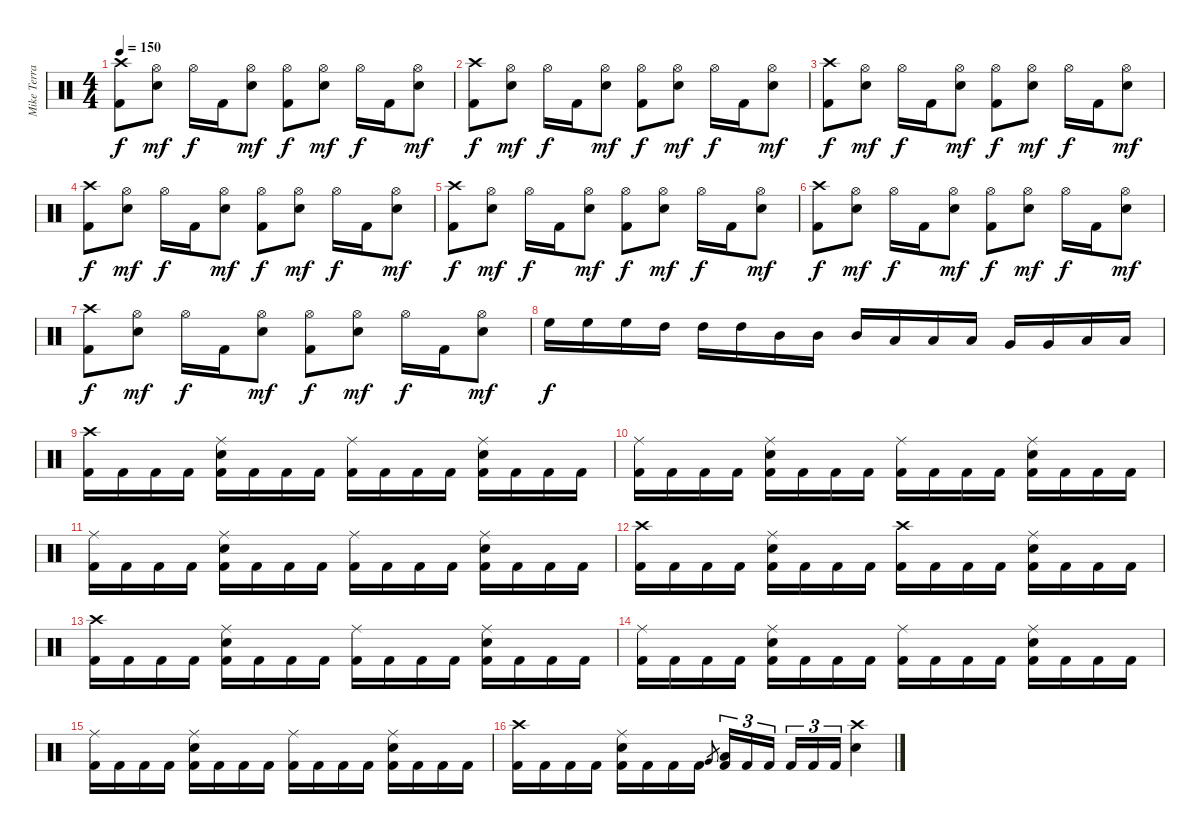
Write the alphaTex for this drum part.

\track ("Mike Terrana" "Mike Terra") {instrument percussion}
\staff {score}
\articulation defaults
\ts (4 4)
\tempo 150
\clef neutral
\ks c
("Crash high (hit)" "Kick (hit) 2").8{dy f} ("Hi-Hat (open)" "Electric Snare (hit)").8{dy mf} "Hi-Hat (open)".16{dy f} "Kick (hit) 2".16 ("Hi-Hat (open)" "Electric Snare (hit)").8{dy mf} ("Hi-Hat (open)" "Kick (hit) 2").8{dy f} ("Hi-Hat (open)" "Electric Snare (hit)").8{dy mf} "Hi-Hat (open)".16{dy f} "Kick (hit) 2".16 ("Hi-Hat (open)" "Electric Snare (hit)").8{dy mf} |
("Crash high (hit)" "Kick (hit) 2").8{dy f} ("Hi-Hat (open)" "Electric Snare (hit)").8{dy mf} "Hi-Hat (open)".16{dy f} "Kick (hit) 2".16 ("Hi-Hat (open)" "Electric Snare (hit)").8{dy mf} ("Hi-Hat (open)" "Kick (hit) 2").8{dy f} ("Hi-Hat (open)" "Electric Snare (hit)").8{dy mf} "Hi-Hat (open)".16{dy f} "Kick (hit) 2".16 ("Hi-Hat (open)" "Electric Snare (hit)").8{dy mf} |
("Crash high (hit)" "Kick (hit) 2").8{dy f} ("Hi-Hat (open)" "Electric Snare (hit)").8{dy mf} "Hi-Hat (open)".16{dy f} "Kick (hit) 2".16 ("Hi-Hat (open)" "Electric Snare (hit)").8{dy mf} ("Hi-Hat (open)" "Kick (hit) 2").8{dy f} ("Hi-Hat (open)" "Electric Snare (hit)").8{dy mf} "Hi-Hat (open)".16{dy f} "Kick (hit) 2".16 ("Hi-Hat (open)" "Electric Snare (hit)").8{dy mf} |
("Crash high (hit)" "Kick (hit) 2").8{dy f} ("Hi-Hat (open)" "Electric Snare (hit)").8{dy mf} "Hi-Hat (open)".16{dy f} "Kick (hit) 2".16 ("Hi-Hat (open)" "Electric Snare (hit)").8{dy mf} ("Hi-Hat (open)" "Kick (hit) 2").8{dy f} ("Hi-Hat (open)" "Electric Snare (hit)").8{dy mf} "Hi-Hat (open)".16{dy f} "Kick (hit) 2".16 ("Hi-Hat (open)" "Electric Snare (hit)").8{dy mf} |
("Crash high (hit)" "Kick (hit) 2").8{dy f} ("Hi-Hat (open)" "Electric Snare (hit)").8{dy mf} "Hi-Hat (open)".16{dy f} "Kick (hit) 2".16 ("Hi-Hat (open)" "Electric Snare (hit)").8{dy mf} ("Hi-Hat (open)" "Kick (hit) 2").8{dy f} ("Hi-Hat (open)" "Electric Snare (hit)").8{dy mf} "Hi-Hat (open)".16{dy f} "Kick (hit) 2".16 ("Hi-Hat (open)" "Electric Snare (hit)").8{dy mf} |
("Crash high (hit)" "Kick (hit) 2").8{dy f} ("Hi-Hat (open)" "Electric Snare (hit)").8{dy mf} "Hi-Hat (open)".16{dy f} "Kick (hit) 2".16 ("Hi-Hat (open)" "Electric Snare (hit)").8{dy mf} ("Hi-Hat (open)" "Kick (hit) 2").8{dy f} ("Hi-Hat (open)" "Electric Snare (hit)").8{dy mf} "Hi-Hat (open)".16{dy f} "Kick (hit) 2".16 ("Hi-Hat (open)" "Electric Snare (hit)").8{dy mf} |
("Crash high (hit)" "Kick (hit) 2").8{dy f} ("Hi-Hat (open)" "Electric Snare (hit)").8{dy mf} "Hi-Hat (open)".16{dy f} "Kick (hit) 2".16 ("Hi-Hat (open)" "Electric Snare (hit)").8{dy mf} ("Hi-Hat (open)" "Kick (hit) 2").8{dy f} ("Hi-Hat (open)" "Electric Snare (hit)").8{dy mf} "Hi-Hat (open)".16{dy f} "Kick (hit) 2".16 ("Hi-Hat (open)" "Electric Snare (hit)").8{dy mf} |
"High Floor Tom (hit)".16{dy f} "High Floor Tom (hit)".16 "High Floor Tom (hit)".16 "High Tom (hit)".16 "High Tom (hit)".16 "High Tom (hit)".16 "Mid Tom (hit)".16 "Mid Tom (hit)".16 "Mid Tom (hit)".16 "Low Tom (hit)".16 "Low Tom (hit)".16 "Low Tom (hit)".16 "Very Low Tom (hit)".16 "Very Low Tom (hit)".16 "Low Floor Tom (hit)".16 "Low Floor Tom (hit)".16 |
("Crash high (hit)" "Kick (hit) 2").16 "Kick (hit) 2".16 "Kick (hit) 2".16 "Kick (hit) 2".16 ("Ride (middle)" "Electric Snare (hit)" "Kick (hit) 2").16 "Kick (hit) 2".16 "Kick (hit) 2".16 "Kick (hit) 2".16 ("Ride (middle)" "Kick (hit) 2").16 "Kick (hit) 2".16 "Kick (hit) 2".16 "Kick (hit) 2".16 ("Ride (middle)" "Electric Snare (hit)" "Kick (hit) 2").16 "Kick (hit) 2".16 "Kick (hit) 2".16 "Kick (hit) 2".16 |
("Ride (middle)" "Kick (hit) 2").16 "Kick (hit) 2".16 "Kick (hit) 2".16 "Kick (hit) 2".16 ("Ride (middle)" "Electric Snare (hit)" "Kick (hit) 2").16 "Kick (hit) 2".16 "Kick (hit) 2".16 "Kick (hit) 2".16 ("Ride (middle)" "Kick (hit) 2").16 "Kick (hit) 2".16 "Kick (hit) 2".16 "Kick (hit) 2".16 ("Ride (middle)" "Electric Snare (hit)" "Kick (hit) 2").16 "Kick (hit) 2".16 "Kick (hit) 2".16 "Kick (hit) 2".16 |
("Ride (middle)" "Kick (hit) 2").16 "Kick (hit) 2".16 "Kick (hit) 2".16 "Kick (hit) 2".16 ("Ride (middle)" "Electric Snare (hit)" "Kick (hit) 2").16 "Kick (hit) 2".16 "Kick (hit) 2".16 "Kick (hit) 2".16 ("Ride (middle)" "Kick (hit) 2").16 "Kick (hit) 2".16 "Kick (hit) 2".16 "Kick (hit) 2".16 ("Ride (middle)" "Electric Snare (hit)" "Kick (hit) 2").16 "Kick (hit) 2".16 "Kick (hit) 2".16 "Kick (hit) 2".16 |
("Crash high (hit)" "Kick (hit) 2").16 "Kick (hit) 2".16 "Kick (hit) 2".16 "Kick (hit) 2".16 ("Ride (middle)" "Electric Snare (hit)" "Kick (hit) 2").16 "Kick (hit) 2".16 "Kick (hit) 2".16 "Kick (hit) 2".16 ("Crash high (hit)" "Kick (hit) 2").16 "Kick (hit) 2".16 "Kick (hit) 2".16 "Kick (hit) 2".16 ("Ride (middle)" "Electric Snare (hit)" "Kick (hit) 2").16 "Kick (hit) 2".16 "Kick (hit) 2".16 "Kick (hit) 2".16 |
("Crash high (hit)" "Kick (hit) 2").16 "Kick (hit) 2".16 "Kick (hit) 2".16 "Kick (hit) 2".16 ("Ride (middle)" "Electric Snare (hit)" "Kick (hit) 2").16 "Kick (hit) 2".16 "Kick (hit) 2".16 "Kick (hit) 2".16 ("Ride (middle)" "Kick (hit) 2").16 "Kick (hit) 2".16 "Kick (hit) 2".16 "Kick (hit) 2".16 ("Ride (middle)" "Electric Snare (hit)" "Kick (hit) 2").16 "Kick (hit) 2".16 "Kick (hit) 2".16 "Kick (hit) 2".16 |
("Ride (middle)" "Kick (hit) 2").16 "Kick (hit) 2".16 "Kick (hit) 2".16 "Kick (hit) 2".16 ("Ride (middle)" "Electric Snare (hit)" "Kick (hit) 2").16 "Kick (hit) 2".16 "Kick (hit) 2".16 "Kick (hit) 2".16 ("Ride (middle)" "Kick (hit) 2").16 "Kick (hit) 2".16 "Kick (hit) 2".16 "Kick (hit) 2".16 ("Ride (middle)" "Electric Snare (hit)" "Kick (hit) 2").16 "Kick (hit) 2".16 "Kick (hit) 2".16 "Kick (hit) 2".16 |
("Ride (middle)" "Kick (hit) 2").16 "Kick (hit) 2".16 "Kick (hit) 2".16 "Kick (hit) 2".16 ("Ride (middle)" "Electric Snare (hit)" "Kick (hit) 2").16 "Kick (hit) 2".16 "Kick (hit) 2".16 "Kick (hit) 2".16 ("Ride (middle)" "Kick (hit) 2").16 "Kick (hit) 2".16 "Kick (hit) 2".16 "Kick (hit) 2".16 ("Ride (middle)" "Electric Snare (hit)" "Kick (hit) 2").16 "Kick (hit) 2".16 "Kick (hit) 2".16 "Kick (hit) 2".16 |
("Crash high (hit)" "Kick (hit) 2").16 "Kick (hit) 2".16 "Kick (hit) 2".16 "Kick (hit) 2".16 ("Ride (middle)" "Electric Snare (hit)" "Kick (hit) 2").16 "Kick (hit) 2".16 "Kick (hit) 2".16 "Kick (hit) 2".16 "Very Low Tom (hit)".8{gr} ("Low Floor Tom (hit)" "Kick (hit) 2").16{tu (3 2)} "Kick (hit) 2".16{tu (3 2)} "Kick (hit) 2".16{tu (3 2)} "Kick (hit) 2".16{tu (3 2)} "Kick (hit) 2".16{tu (3 2)} "Kick (hit) 2".16{tu (3 2)} ("Crash high (hit)" "Electric Snare (hit)").4
